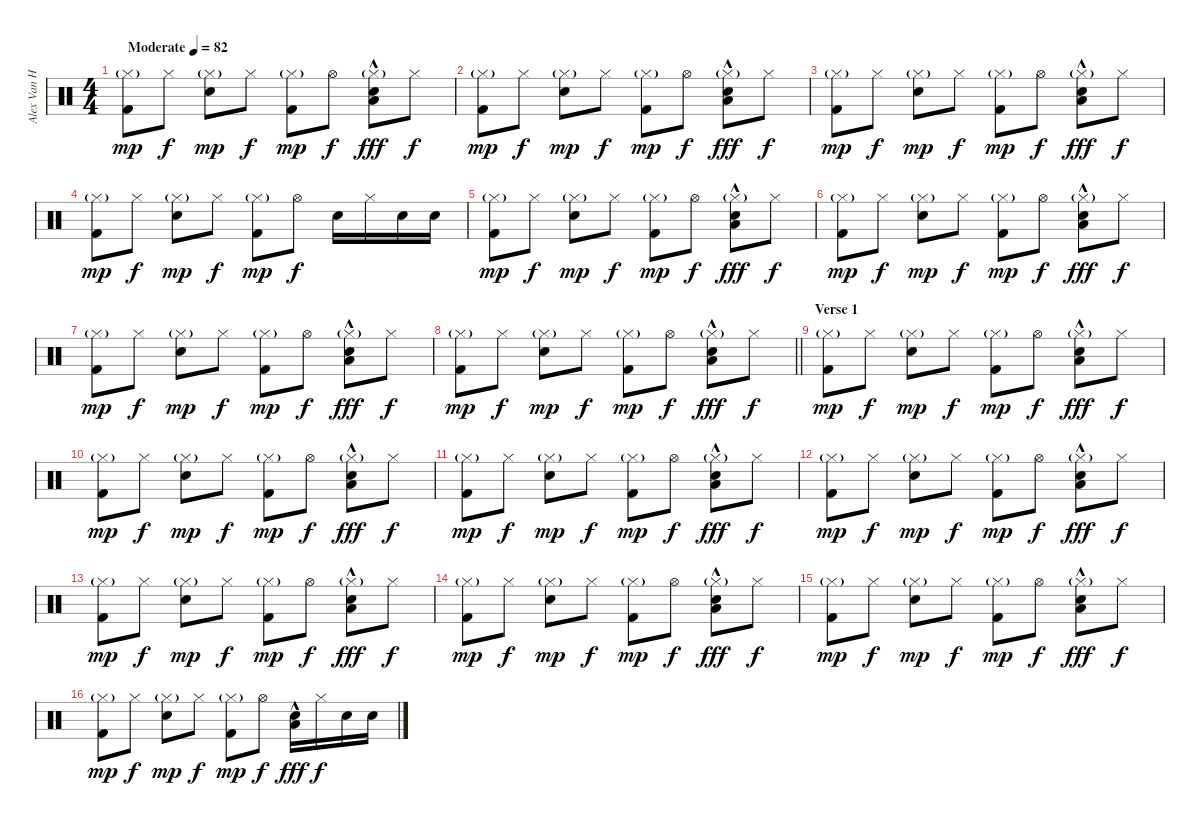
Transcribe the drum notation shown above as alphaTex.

\track ("Alex Van Halen" "Alex Van H") {instrument percussion}
\staff {score}
\articulation defaults
\ts (4 4)
\tempo (82 "Moderate")
\clef neutral
\ks c
("Hi-Hat (closed)"{g} "Kick (hit) 2").8{dy mp} "Hi-Hat (closed)".8{dy f} ("Hi-Hat (closed)"{g} "Electric Snare (hit)").8{dy mp} "Hi-Hat (closed)".8{dy f} ("Hi-Hat (closed)"{g} "Kick (hit) 2").8{dy mp} "Hi-Hat (open)".8{dy f} ("Hi-Hat (closed)"{g} "Electric Snare (hit)" "Low Tom (hit)"{hac}).8{dy fff} "Hi-Hat (closed)".8{dy f} |
("Hi-Hat (closed)"{g} "Kick (hit) 2").8{dy mp} "Hi-Hat (closed)".8{dy f} ("Hi-Hat (closed)"{g} "Electric Snare (hit)").8{dy mp} "Hi-Hat (closed)".8{dy f} ("Hi-Hat (closed)"{g} "Kick (hit) 2").8{dy mp} "Hi-Hat (open)".8{dy f} ("Hi-Hat (closed)"{g} "Electric Snare (hit)" "Low Tom (hit)"{hac}).8{dy fff} "Hi-Hat (closed)".8{dy f} |
("Hi-Hat (closed)"{g} "Kick (hit) 2").8{dy mp} "Hi-Hat (closed)".8{dy f} ("Hi-Hat (closed)"{g} "Electric Snare (hit)").8{dy mp} "Hi-Hat (closed)".8{dy f} ("Hi-Hat (closed)"{g} "Kick (hit) 2").8{dy mp} "Hi-Hat (open)".8{dy f} ("Hi-Hat (closed)"{g} "Electric Snare (hit)" "Low Tom (hit)"{hac}).8{dy fff} "Hi-Hat (closed)".8{dy f} |
("Hi-Hat (closed)"{g} "Kick (hit) 2").8{dy mp} "Hi-Hat (closed)".8{dy f} ("Hi-Hat (closed)"{g} "Electric Snare (hit)").8{dy mp} "Hi-Hat (closed)".8{dy f} ("Hi-Hat (closed)"{g} "Kick (hit) 2").8{dy mp} "Hi-Hat (open)".8{dy f} "Electric Snare (hit)".16 "Hi-Hat (closed)".16 "Electric Snare (hit)".16 "Electric Snare (hit)".16 |
("Hi-Hat (closed)"{g} "Kick (hit) 2").8{dy mp} "Hi-Hat (closed)".8{dy f} ("Hi-Hat (closed)"{g} "Electric Snare (hit)").8{dy mp} "Hi-Hat (closed)".8{dy f} ("Hi-Hat (closed)"{g} "Kick (hit) 2").8{dy mp} "Hi-Hat (open)".8{dy f} ("Hi-Hat (closed)"{g} "Electric Snare (hit)" "Low Tom (hit)"{hac}).8{dy fff} "Hi-Hat (closed)".8{dy f} |
("Hi-Hat (closed)"{g} "Kick (hit) 2").8{dy mp} "Hi-Hat (closed)".8{dy f} ("Hi-Hat (closed)"{g} "Electric Snare (hit)").8{dy mp} "Hi-Hat (closed)".8{dy f} ("Hi-Hat (closed)"{g} "Kick (hit) 2").8{dy mp} "Hi-Hat (open)".8{dy f} ("Hi-Hat (closed)"{g} "Electric Snare (hit)" "Low Tom (hit)"{hac}).8{dy fff} "Hi-Hat (closed)".8{dy f} |
("Hi-Hat (closed)"{g} "Kick (hit) 2").8{dy mp} "Hi-Hat (closed)".8{dy f} ("Hi-Hat (closed)"{g} "Electric Snare (hit)").8{dy mp} "Hi-Hat (closed)".8{dy f} ("Hi-Hat (closed)"{g} "Kick (hit) 2").8{dy mp} "Hi-Hat (open)".8{dy f} ("Hi-Hat (closed)"{g} "Electric Snare (hit)" "Low Tom (hit)"{hac}).8{dy fff} "Hi-Hat (closed)".8{dy f} |
\barLineRight lightlight
("Hi-Hat (closed)"{g} "Kick (hit) 2").8{dy mp} "Hi-Hat (closed)".8{dy f} ("Hi-Hat (closed)"{g} "Electric Snare (hit)").8{dy mp} "Hi-Hat (closed)".8{dy f} ("Hi-Hat (closed)"{g} "Kick (hit) 2").8{dy mp} "Hi-Hat (open)".8{dy f} ("Hi-Hat (closed)"{g} "Electric Snare (hit)" "Low Tom (hit)"{hac}).8{dy fff} "Hi-Hat (closed)".8{dy f} |
\section ("" "Verse 1")
("Hi-Hat (closed)"{g} "Kick (hit) 2").8{dy mp} "Hi-Hat (closed)".8{dy f} ("Hi-Hat (closed)"{g} "Electric Snare (hit)").8{dy mp} "Hi-Hat (closed)".8{dy f} ("Hi-Hat (closed)"{g} "Kick (hit) 2").8{dy mp} "Hi-Hat (open)".8{dy f} ("Hi-Hat (closed)"{g} "Electric Snare (hit)" "Low Tom (hit)"{hac}).8{dy fff} "Hi-Hat (closed)".8{dy f} |
("Hi-Hat (closed)"{g} "Kick (hit) 2").8{dy mp} "Hi-Hat (closed)".8{dy f} ("Hi-Hat (closed)"{g} "Electric Snare (hit)").8{dy mp} "Hi-Hat (closed)".8{dy f} ("Hi-Hat (closed)"{g} "Kick (hit) 2").8{dy mp} "Hi-Hat (open)".8{dy f} ("Hi-Hat (closed)"{g} "Electric Snare (hit)" "Low Tom (hit)"{hac}).8{dy fff} "Hi-Hat (closed)".8{dy f} |
("Hi-Hat (closed)"{g} "Kick (hit) 2").8{dy mp} "Hi-Hat (closed)".8{dy f} ("Hi-Hat (closed)"{g} "Electric Snare (hit)").8{dy mp} "Hi-Hat (closed)".8{dy f} ("Hi-Hat (closed)"{g} "Kick (hit) 2").8{dy mp} "Hi-Hat (open)".8{dy f} ("Hi-Hat (closed)"{g} "Electric Snare (hit)" "Low Tom (hit)"{hac}).8{dy fff} "Hi-Hat (closed)".8{dy f} |
("Hi-Hat (closed)"{g} "Kick (hit) 2").8{dy mp} "Hi-Hat (closed)".8{dy f} ("Hi-Hat (closed)"{g} "Electric Snare (hit)").8{dy mp} "Hi-Hat (closed)".8{dy f} ("Hi-Hat (closed)"{g} "Kick (hit) 2").8{dy mp} "Hi-Hat (open)".8{dy f} ("Hi-Hat (closed)"{g} "Electric Snare (hit)" "Low Tom (hit)"{hac}).8{dy fff} "Hi-Hat (closed)".8{dy f} |
("Hi-Hat (closed)"{g} "Kick (hit) 2").8{dy mp} "Hi-Hat (closed)".8{dy f} ("Hi-Hat (closed)"{g} "Electric Snare (hit)").8{dy mp} "Hi-Hat (closed)".8{dy f} ("Hi-Hat (closed)"{g} "Kick (hit) 2").8{dy mp} "Hi-Hat (open)".8{dy f} ("Hi-Hat (closed)"{g} "Electric Snare (hit)" "Low Tom (hit)"{hac}).8{dy fff} "Hi-Hat (closed)".8{dy f} |
("Hi-Hat (closed)"{g} "Kick (hit) 2").8{dy mp} "Hi-Hat (closed)".8{dy f} ("Hi-Hat (closed)"{g} "Electric Snare (hit)").8{dy mp} "Hi-Hat (closed)".8{dy f} ("Hi-Hat (closed)"{g} "Kick (hit) 2").8{dy mp} "Hi-Hat (open)".8{dy f} ("Hi-Hat (closed)"{g} "Electric Snare (hit)" "Low Tom (hit)"{hac}).8{dy fff} "Hi-Hat (closed)".8{dy f} |
("Hi-Hat (closed)"{g} "Kick (hit) 2").8{dy mp} "Hi-Hat (closed)".8{dy f} ("Hi-Hat (closed)"{g} "Electric Snare (hit)").8{dy mp} "Hi-Hat (closed)".8{dy f} ("Hi-Hat (closed)"{g} "Kick (hit) 2").8{dy mp} "Hi-Hat (open)".8{dy f} ("Hi-Hat (closed)"{g} "Electric Snare (hit)" "Low Tom (hit)"{hac}).8{dy fff} "Hi-Hat (closed)".8{dy f} |
("Hi-Hat (closed)"{g} "Kick (hit) 2").8{dy mp} "Hi-Hat (closed)".8{dy f} ("Hi-Hat (closed)"{g} "Electric Snare (hit)").8{dy mp} "Hi-Hat (closed)".8{dy f} ("Hi-Hat (closed)"{g} "Kick (hit) 2").8{dy mp} "Hi-Hat (open)".8{dy f} ("Electric Snare (hit)" "Low Tom (hit)"{hac}).16{dy fff} "Hi-Hat (closed)".16{dy f} "Electric Snare (hit)".16 "Electric Snare (hit)".16
